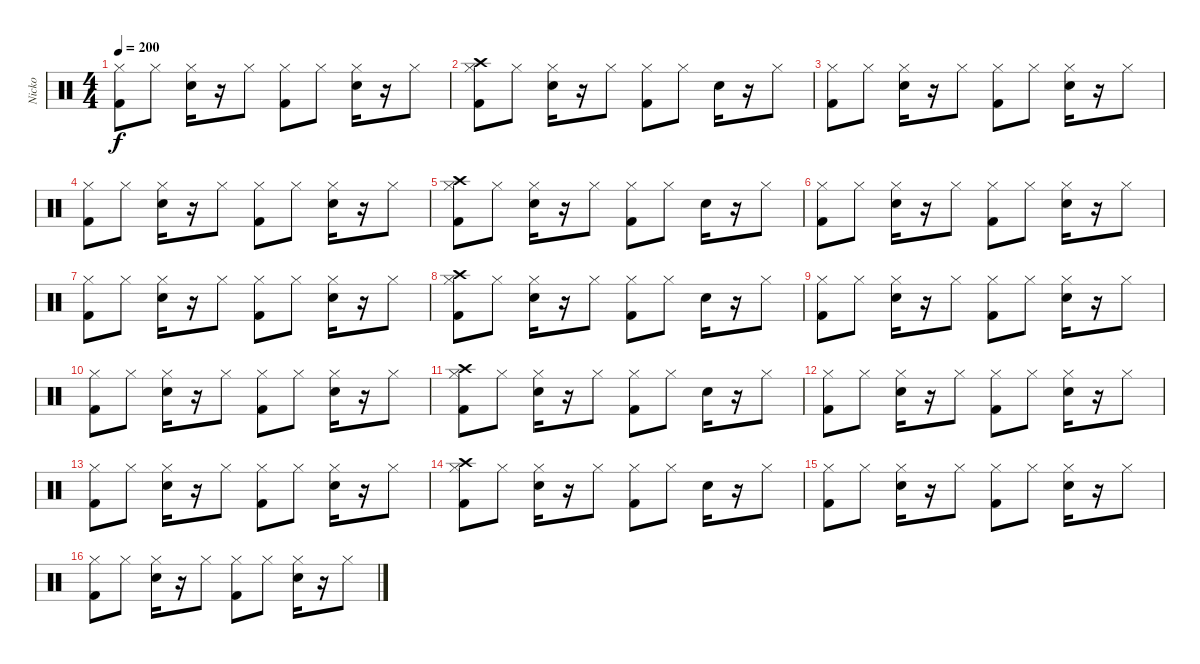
\track ("Nicko" "Nicko") {instrument percussion}
\staff {score}
\articulation defaults
\ts (4 4)
\tempo 200
\clef neutral
\ks c
("Kick (hit) 2" "Hi-Hat (closed)").8{dy f} "Hi-Hat (closed)".8 ("Snare (hit) 2" "Hi-Hat (closed)").16 r.16 "Hi-Hat (closed)".8 ("Kick (hit) 2" "Hi-Hat (closed)").8 "Hi-Hat (closed)".8 ("Snare (hit) 2" "Hi-Hat (closed)").16 r.16 "Hi-Hat (closed)".8 |
("Kick (hit) 2" "Hi-Hat (closed)" "Crash high (hit)").8 "Hi-Hat (closed)".8 ("Snare (hit) 2" "Hi-Hat (closed)").16 r.16 "Hi-Hat (closed)".8 ("Kick (hit) 2" "Hi-Hat (closed)").8 "Hi-Hat (closed)".8 "Snare (hit) 2".16 r.16 "Hi-Hat (closed)".8 |
("Kick (hit) 2" "Hi-Hat (closed)").8 "Hi-Hat (closed)".8 ("Snare (hit) 2" "Hi-Hat (closed)").16 r.16 "Hi-Hat (closed)".8 ("Kick (hit) 2" "Hi-Hat (closed)").8 "Hi-Hat (closed)".8 ("Snare (hit) 2" "Hi-Hat (closed)").16 r.16 "Hi-Hat (closed)".8 |
("Kick (hit) 2" "Hi-Hat (closed)").8 "Hi-Hat (closed)".8 ("Snare (hit) 2" "Hi-Hat (closed)").16 r.16 "Hi-Hat (closed)".8 ("Kick (hit) 2" "Hi-Hat (closed)").8 "Hi-Hat (closed)".8 ("Snare (hit) 2" "Hi-Hat (closed)").16 r.16 "Hi-Hat (closed)".8 |
("Kick (hit) 2" "Hi-Hat (closed)" "Crash high (hit)").8 "Hi-Hat (closed)".8 ("Snare (hit) 2" "Hi-Hat (closed)").16 r.16 "Hi-Hat (closed)".8 ("Kick (hit) 2" "Hi-Hat (closed)").8 "Hi-Hat (closed)".8 "Snare (hit) 2".16 r.16 "Hi-Hat (closed)".8 |
("Kick (hit) 2" "Hi-Hat (closed)").8 "Hi-Hat (closed)".8 ("Snare (hit) 2" "Hi-Hat (closed)").16 r.16 "Hi-Hat (closed)".8 ("Kick (hit) 2" "Hi-Hat (closed)").8 "Hi-Hat (closed)".8 ("Snare (hit) 2" "Hi-Hat (closed)").16 r.16 "Hi-Hat (closed)".8 |
("Kick (hit) 2" "Hi-Hat (closed)").8 "Hi-Hat (closed)".8 ("Snare (hit) 2" "Hi-Hat (closed)").16 r.16 "Hi-Hat (closed)".8 ("Kick (hit) 2" "Hi-Hat (closed)").8 "Hi-Hat (closed)".8 ("Snare (hit) 2" "Hi-Hat (closed)").16 r.16 "Hi-Hat (closed)".8 |
("Kick (hit) 2" "Hi-Hat (closed)" "Crash high (hit)").8 "Hi-Hat (closed)".8 ("Snare (hit) 2" "Hi-Hat (closed)").16 r.16 "Hi-Hat (closed)".8 ("Kick (hit) 2" "Hi-Hat (closed)").8 "Hi-Hat (closed)".8 "Snare (hit) 2".16 r.16 "Hi-Hat (closed)".8 |
("Kick (hit) 2" "Hi-Hat (closed)").8 "Hi-Hat (closed)".8 ("Snare (hit) 2" "Hi-Hat (closed)").16 r.16 "Hi-Hat (closed)".8 ("Kick (hit) 2" "Hi-Hat (closed)").8 "Hi-Hat (closed)".8 ("Snare (hit) 2" "Hi-Hat (closed)").16 r.16 "Hi-Hat (closed)".8 |
("Kick (hit) 2" "Hi-Hat (closed)").8 "Hi-Hat (closed)".8 ("Snare (hit) 2" "Hi-Hat (closed)").16 r.16 "Hi-Hat (closed)".8 ("Kick (hit) 2" "Hi-Hat (closed)").8 "Hi-Hat (closed)".8 ("Snare (hit) 2" "Hi-Hat (closed)").16 r.16 "Hi-Hat (closed)".8 |
("Kick (hit) 2" "Hi-Hat (closed)" "Crash high (hit)").8 "Hi-Hat (closed)".8 ("Snare (hit) 2" "Hi-Hat (closed)").16 r.16 "Hi-Hat (closed)".8 ("Kick (hit) 2" "Hi-Hat (closed)").8 "Hi-Hat (closed)".8 "Snare (hit) 2".16 r.16 "Hi-Hat (closed)".8 |
("Kick (hit) 2" "Hi-Hat (closed)").8 "Hi-Hat (closed)".8 ("Snare (hit) 2" "Hi-Hat (closed)").16 r.16 "Hi-Hat (closed)".8 ("Kick (hit) 2" "Hi-Hat (closed)").8 "Hi-Hat (closed)".8 ("Snare (hit) 2" "Hi-Hat (closed)").16 r.16 "Hi-Hat (closed)".8 |
("Kick (hit) 2" "Hi-Hat (closed)").8 "Hi-Hat (closed)".8 ("Snare (hit) 2" "Hi-Hat (closed)").16 r.16 "Hi-Hat (closed)".8 ("Kick (hit) 2" "Hi-Hat (closed)").8 "Hi-Hat (closed)".8 ("Snare (hit) 2" "Hi-Hat (closed)").16 r.16 "Hi-Hat (closed)".8 |
("Kick (hit) 2" "Hi-Hat (closed)" "Crash high (hit)").8 "Hi-Hat (closed)".8 ("Snare (hit) 2" "Hi-Hat (closed)").16 r.16 "Hi-Hat (closed)".8 ("Kick (hit) 2" "Hi-Hat (closed)").8 "Hi-Hat (closed)".8 "Snare (hit) 2".16 r.16 "Hi-Hat (closed)".8 |
("Kick (hit) 2" "Hi-Hat (closed)").8 "Hi-Hat (closed)".8 ("Snare (hit) 2" "Hi-Hat (closed)").16 r.16 "Hi-Hat (closed)".8 ("Kick (hit) 2" "Hi-Hat (closed)").8 "Hi-Hat (closed)".8 ("Snare (hit) 2" "Hi-Hat (closed)").16 r.16 "Hi-Hat (closed)".8 |
("Kick (hit) 2" "Hi-Hat (closed)").8 "Hi-Hat (closed)".8 ("Snare (hit) 2" "Hi-Hat (closed)").16 r.16 "Hi-Hat (closed)".8 ("Kick (hit) 2" "Hi-Hat (closed)").8 "Hi-Hat (closed)".8 ("Snare (hit) 2" "Hi-Hat (closed)").16 r.16 "Hi-Hat (closed)".8
